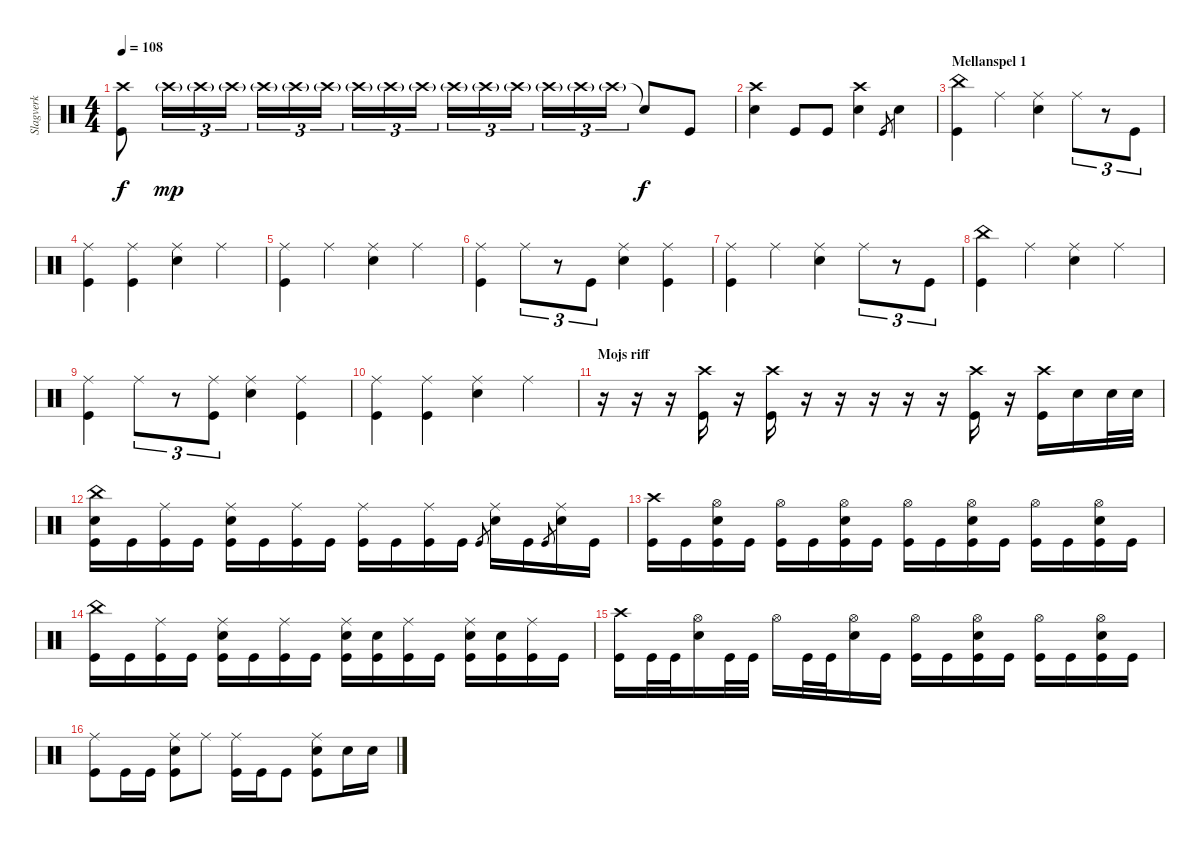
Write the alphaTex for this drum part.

\track ("Slagverk" "Slagverk") {instrument percussion}
\staff {score}
\articulation defaults
\ts (4 4)
\tempo 108
\clef neutral
\ks c
("Crash high (hit)" "Kick (hit)").8{dy f} "Crash high (hit)"{g}.16{tu (3 2) dy mp} "Crash high (hit)"{g}.16{tu (3 2)} "Crash high (hit)"{g}.16{tu (3 2)} "Crash high (hit)"{g}.16{tu (3 2)} "Crash high (hit)"{g}.16{tu (3 2)} "Crash high (hit)"{g}.16{tu (3 2)} "Crash high (hit)"{g}.16{tu (3 2)} "Crash high (hit)"{g}.16{tu (3 2)} "Crash high (hit)"{g}.16{tu (3 2)} "Crash high (hit)"{g}.16{tu (3 2)} "Crash high (hit)"{g}.16{tu (3 2)} "Crash high (hit)"{g}.16{tu (3 2)} "Crash high (hit)"{g}.16{tu (3 2)} "Crash high (hit)"{g}.16{tu (3 2)} "Crash high (hit)"{g}.16{tu (3 2)} "Snare (hit)"{t}.8{dy f} "Kick (hit)".8 |
("Crash high (hit)" "Electric Snare (hit)").4 "Kick (hit)".8 "Kick (hit)".8 ("Crash high (hit)" "Electric Snare (hit)").4 "Kick (hit)"{sl}.8{gr} "Electric Snare (hit)".4 |
\section ("" "Mellanspel 1")
("China (hit)" "Kick (hit)").4 "Ride (middle)".4 ("Ride (middle)" "Snare (hit) 2").4 "Ride (middle)".8{tu (3 2)} r.8{tu (3 2)} "Kick (hit)".8{tu (3 2)} |
("Ride (middle)" "Kick (hit)").4 ("Ride (middle)" "Kick (hit)").4 ("Ride (middle)" "Snare (hit) 2").4 "Ride (middle)".4 |
("Ride (middle)" "Kick (hit)").4 "Ride (middle)".4 ("Ride (middle)" "Snare (hit) 2").4 "Ride (middle)".4 |
("Ride (middle)" "Kick (hit)").4 "Ride (middle)".8{tu (3 2)} r.8{tu (3 2)} "Kick (hit)".8{tu (3 2)} ("Ride (middle)" "Snare (hit) 2").4 ("Ride (middle)" "Kick (hit)").4 |
("Ride (middle)" "Kick (hit)").4 "Ride (middle)".4 ("Ride (middle)" "Snare (hit) 2").4 "Ride (middle)".8{tu (3 2)} r.8{tu (3 2)} "Kick (hit)".8{tu (3 2)} |
("China (hit)" "Kick (hit)").4 "Ride (middle)".4 ("Ride (middle)" "Snare (hit) 2").4 "Ride (middle)".4 |
("Ride (middle)" "Kick (hit)").4 "Ride (middle)".8{tu (3 2)} r.8{tu (3 2)} ("Ride (middle)" "Kick (hit)").8{tu (3 2)} ("Ride (middle)" "Snare (hit) 2").4 ("Ride (middle)" "Kick (hit)").4 |
("Ride (middle)" "Kick (hit)").4 ("Ride (middle)" "Kick (hit)").4 ("Ride (middle)" "Snare (hit) 2").4 "Ride (middle)".4 |
\section ("" "Mojs riff")
r.16 r.16 r.16 ("Crash high (hit)" "Kick (hit)").16 r.16 ("Crash high (hit)" "Kick (hit)").16 r.16 r.16 r.16 r.16 r.16 ("Crash high (hit)" "Kick (hit)").16 r.16 ("Crash high (hit)" "Kick (hit)").16 "Electric Snare (hit)".16 "Electric Snare (hit)".32 "Electric Snare (hit)".32 |
("China (hit)" "Electric Snare (hit)" "Kick (hit)").16 "Kick (hit)".16 ("Ride (middle)" "Kick (hit)").16 "Kick (hit)".16 ("Ride (middle)" "Electric Snare (hit)" "Kick (hit)").16 "Kick (hit)".16 ("Ride (middle)" "Kick (hit)").16 "Kick (hit)".16 ("Ride (middle)" "Kick (hit)").16 "Kick (hit)".16 ("Ride (middle)" "Kick (hit)").16 "Kick (hit)".16 "Kick (hit)"{sl}.8{gr} ("Ride (middle)" "Electric Snare (hit)").16 "Kick (hit)".16 "Kick (hit)"{sl}.8{gr} ("Ride (middle)" "Electric Snare (hit)").16 "Kick (hit)".16 |
("Crash high (hit)" "Kick (hit)").16 "Kick (hit)".16 ("Hi-Hat (open)" "Electric Snare (hit)" "Kick (hit)").16 "Kick (hit)".16 ("Hi-Hat (open)" "Kick (hit)").16 "Kick (hit)".16 ("Hi-Hat (open)" "Electric Snare (hit)" "Kick (hit)").16 "Kick (hit)".16 ("Hi-Hat (open)" "Kick (hit)").16 "Kick (hit)".16 ("Hi-Hat (open)" "Electric Snare (hit)" "Kick (hit)").16 "Kick (hit)".16 ("Hi-Hat (open)" "Kick (hit)").16 "Kick (hit)".16 ("Hi-Hat (open)" "Electric Snare (hit)" "Kick (hit)").16 "Kick (hit)".16 |
("China (hit)" "Kick (hit)").16 "Kick (hit)".16 ("Ride (middle)" "Kick (hit)").16 "Kick (hit)".16 ("Ride (middle)" "Electric Snare (hit)" "Kick (hit)").16 "Kick (hit)".16 ("Ride (middle)" "Kick (hit)").16 "Kick (hit)".16 ("Ride (middle)" "Electric Snare (hit)" "Kick (hit)").16 ("Electric Snare (hit)" "Kick (hit)").16 ("Ride (middle)" "Kick (hit)").16 "Kick (hit)".16 ("Ride (middle)" "Electric Snare (hit)" "Kick (hit)").16 ("Electric Snare (hit)" "Kick (hit)").16 ("Ride (middle)" "Kick (hit)").16 "Kick (hit)".16 |
("Crash high (hit)" "Kick (hit)").16 "Kick (hit)".32 "Kick (hit)".32 ("Hi-Hat (open)" "Electric Snare (hit)").16 "Kick (hit)".32 "Kick (hit)".32 "Hi-Hat (open)".16 "Kick (hit)".32 "Kick (hit)".32 ("Hi-Hat (open)" "Electric Snare (hit)").16 "Kick (hit)".16 ("Hi-Hat (open)" "Kick (hit)").16 "Kick (hit)".16 ("Hi-Hat (open)" "Electric Snare (hit)" "Kick (hit)").16 "Kick (hit)".16 ("Hi-Hat (open)" "Kick (hit)").16 "Kick (hit)".16 ("Hi-Hat (open)" "Electric Snare (hit)" "Kick (hit)").16 "Kick (hit)".16 |
("Ride (middle)" "Kick (hit)").8 "Kick (hit)".16 "Kick (hit)".16 ("Ride (middle)" "Electric Snare (hit)" "Kick (hit)").8 "Ride (middle)".8 ("Ride (middle)" "Kick (hit)").16 "Kick (hit)".16 "Kick (hit)".8 ("Ride (middle)" "Electric Snare (hit)" "Kick (hit)").8 "Electric Snare (hit)".16 "Electric Snare (hit)".16
